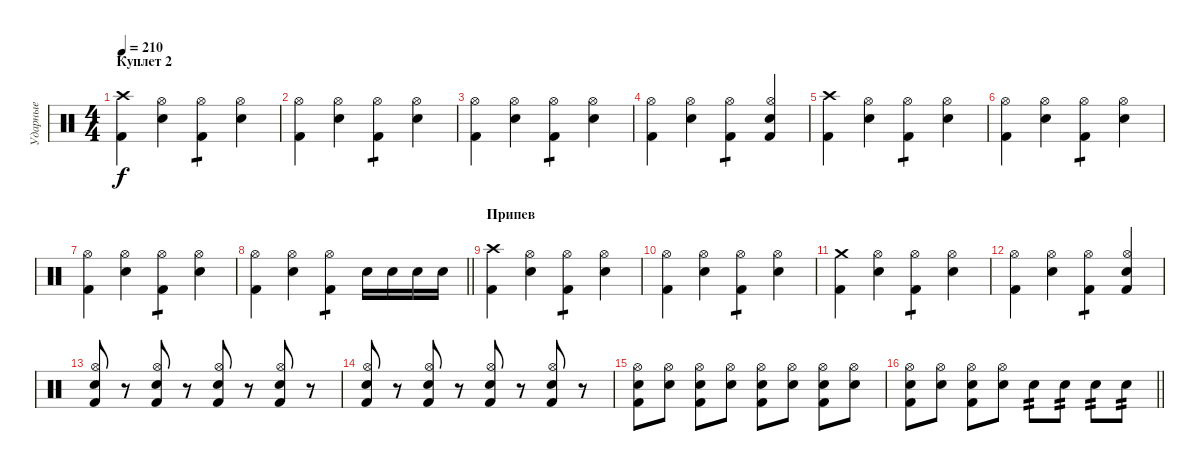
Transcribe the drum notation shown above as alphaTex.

\track ("Ударные" "Ударные") {instrument percussion}
\staff {score}
\articulation defaults
\ts (4 4)
\section ("" "Куплет 2")
\tempo 210
\clef neutral
\ks c
("Kick (hit) 2" "Crash high (hit)").4{dy f} ("Hi-Hat (open)" "Electric Snare (hit)").4 ("Kick (hit) 2" "Hi-Hat (open)").4{tp 1} ("Hi-Hat (open)" "Electric Snare (hit)").4 |
("Kick (hit) 2" "Hi-Hat (open)").4 ("Hi-Hat (open)" "Electric Snare (hit)").4 ("Kick (hit) 2" "Hi-Hat (open)").4{tp 1} ("Hi-Hat (open)" "Electric Snare (hit)").4 |
("Kick (hit) 2" "Hi-Hat (open)").4 ("Hi-Hat (open)" "Electric Snare (hit)").4 ("Kick (hit) 2" "Hi-Hat (open)").4{tp 1} ("Hi-Hat (open)" "Electric Snare (hit)").4 |
("Kick (hit) 2" "Hi-Hat (open)").4 ("Hi-Hat (open)" "Electric Snare (hit)").4 ("Kick (hit) 2" "Hi-Hat (open)").4{tp 1} ("Hi-Hat (open)" "Electric Snare (hit)" "Kick (hit) 2").4 |
("Kick (hit) 2" "Crash high (hit)").4 ("Hi-Hat (open)" "Electric Snare (hit)").4 ("Kick (hit) 2" "Hi-Hat (open)").4{tp 1} ("Hi-Hat (open)" "Electric Snare (hit)").4 |
("Kick (hit) 2" "Hi-Hat (open)").4 ("Hi-Hat (open)" "Electric Snare (hit)").4 ("Kick (hit) 2" "Hi-Hat (open)").4{tp 1} ("Hi-Hat (open)" "Electric Snare (hit)").4 |
("Kick (hit) 2" "Hi-Hat (open)").4 ("Hi-Hat (open)" "Electric Snare (hit)").4 ("Kick (hit) 2" "Hi-Hat (open)").4{tp 1} ("Hi-Hat (open)" "Electric Snare (hit)").4 |
\barLineRight lightlight
("Kick (hit) 2" "Hi-Hat (open)").4 ("Hi-Hat (open)" "Electric Snare (hit)").4 ("Kick (hit) 2" "Hi-Hat (open)").4{tp 1} "Electric Snare (hit)".16 "Electric Snare (hit)".16 "Electric Snare (hit)".16 "Electric Snare (hit)".16 |
\section ("" "Припев")
("Kick (hit) 2" "Crash high (hit)").4 ("Hi-Hat (open)" "Electric Snare (hit)").4 ("Kick (hit) 2" "Hi-Hat (open)").4{tp 1} ("Hi-Hat (open)" "Electric Snare (hit)").4 |
("Kick (hit) 2" "Hi-Hat (open)").4 ("Hi-Hat (open)" "Electric Snare (hit)").4 ("Kick (hit) 2" "Hi-Hat (open)").4{tp 1} ("Hi-Hat (open)" "Electric Snare (hit)").4 |
("Kick (hit) 2" "Crash medium (hit)").4 ("Hi-Hat (open)" "Electric Snare (hit)").4 ("Kick (hit) 2" "Hi-Hat (open)").4{tp 1} ("Hi-Hat (open)" "Electric Snare (hit)").4 |
("Kick (hit) 2" "Hi-Hat (open)").4 ("Hi-Hat (open)" "Electric Snare (hit)").4 ("Kick (hit) 2" "Hi-Hat (open)").4{tp 1} ("Hi-Hat (open)" "Electric Snare (hit)" "Kick (hit) 2").4 |
("Kick (hit) 2" "Hi-Hat (open)" "Electric Snare (hit)").8 r.8 ("Kick (hit) 2" "Hi-Hat (open)" "Electric Snare (hit)").8 r.8 ("Kick (hit) 2" "Hi-Hat (open)" "Electric Snare (hit)").8 r.8 ("Kick (hit) 2" "Hi-Hat (open)" "Electric Snare (hit)").8 r.8 |
("Kick (hit) 2" "Hi-Hat (open)" "Electric Snare (hit)").8 r.8 ("Kick (hit) 2" "Hi-Hat (open)" "Electric Snare (hit)").8 r.8 ("Kick (hit) 2" "Hi-Hat (open)" "Electric Snare (hit)").8 r.8 ("Kick (hit) 2" "Hi-Hat (open)" "Electric Snare (hit)").8 r.8 |
("Kick (hit) 2" "Hi-Hat (open)" "Electric Snare (hit)").8 ("Hi-Hat (open)" "Electric Snare (hit)").8 ("Kick (hit) 2" "Hi-Hat (open)" "Electric Snare (hit)").8 ("Hi-Hat (open)" "Electric Snare (hit)").8 ("Kick (hit) 2" "Hi-Hat (open)" "Electric Snare (hit)").8 ("Hi-Hat (open)" "Electric Snare (hit)").8 ("Kick (hit) 2" "Hi-Hat (open)" "Electric Snare (hit)").8 ("Hi-Hat (open)" "Electric Snare (hit)").8 |
\barLineRight lightlight
("Kick (hit) 2" "Hi-Hat (open)" "Electric Snare (hit)").8 ("Hi-Hat (open)" "Electric Snare (hit)").8 ("Kick (hit) 2" "Hi-Hat (open)" "Electric Snare (hit)").8 ("Hi-Hat (open)" "Electric Snare (hit)").8 "Electric Snare (hit)".8{tp 2} "Electric Snare (hit)".8{tp 2} "Electric Snare (hit)".8{tp 2} "Electric Snare (hit)".8{tp 2}
